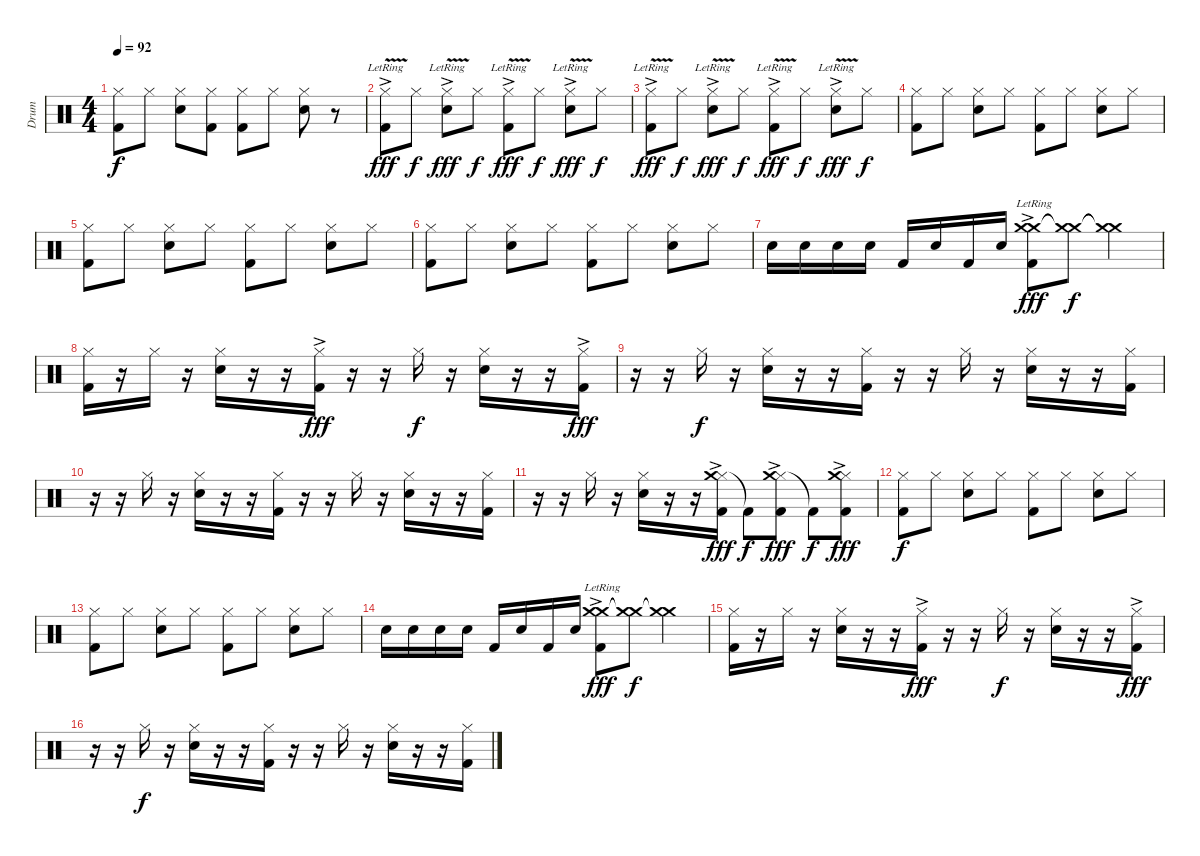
\track ("Drum" "Drum") {instrument percussion}
\staff {score}
\articulation defaults
\ts (4 4)
\tempo 92
\clef neutral
\ks c
("Hi-Hat (closed)" "Kick (hit) 2").8{dy f} "Hi-Hat (closed)".8 ("Hi-Hat (closed)" "Electric Snare (hit)").8 ("Hi-Hat (closed)" "Kick (hit) 2").8 ("Hi-Hat (closed)" "Kick (hit) 2").8 "Hi-Hat (closed)".8 ("Hi-Hat (closed)" "Electric Snare (hit)").8 r.8 |
("Hi-Hat (closed)" "Kick (hit) 2"{v ac lr}).8{dy fff} "Hi-Hat (closed)".8{dy f} ("Hi-Hat (closed)" "Electric Snare (hit)"{v ac lr}).8{dy fff} "Hi-Hat (closed)".8{dy f} ("Hi-Hat (closed)" "Kick (hit) 2"{v ac lr}).8{dy fff} "Hi-Hat (closed)".8{dy f} ("Hi-Hat (closed)" "Electric Snare (hit)"{v ac lr}).8{dy fff} "Hi-Hat (closed)".8{dy f} |
("Hi-Hat (closed)" "Kick (hit) 2"{v ac lr}).8{dy fff} "Hi-Hat (closed)".8{dy f} ("Hi-Hat (closed)" "Electric Snare (hit)"{v ac lr}).8{dy fff} "Hi-Hat (closed)".8{dy f} ("Hi-Hat (closed)" "Kick (hit) 2"{v ac lr}).8{dy fff} "Hi-Hat (closed)".8{dy f} ("Hi-Hat (closed)" "Electric Snare (hit)"{v ac lr}).8{dy fff} "Hi-Hat (closed)".8{dy f} |
("Hi-Hat (closed)" "Kick (hit) 2").8 "Hi-Hat (closed)".8 ("Hi-Hat (closed)" "Electric Snare (hit)").8 "Hi-Hat (closed)".8 ("Hi-Hat (closed)" "Kick (hit) 2").8 "Hi-Hat (closed)".8 ("Hi-Hat (closed)" "Electric Snare (hit)").8 "Hi-Hat (closed)".8 |
("Hi-Hat (closed)" "Kick (hit) 2").8 "Hi-Hat (closed)".8 ("Hi-Hat (closed)" "Electric Snare (hit)").8 "Hi-Hat (closed)".8 ("Hi-Hat (closed)" "Kick (hit) 2").8 "Hi-Hat (closed)".8 ("Hi-Hat (closed)" "Electric Snare (hit)").8 "Hi-Hat (closed)".8 |
("Hi-Hat (closed)" "Kick (hit) 2").8 "Hi-Hat (closed)".8 ("Hi-Hat (closed)" "Electric Snare (hit)").8 "Hi-Hat (closed)".8 ("Hi-Hat (closed)" "Kick (hit) 2").8 "Hi-Hat (closed)".8 ("Hi-Hat (closed)" "Electric Snare (hit)").8 "Hi-Hat (closed)".8 |
"Electric Snare (hit)".16 "Electric Snare (hit)".16 "Electric Snare (hit)".16 "Electric Snare (hit)".16 "Kick (hit) 2".16 "Electric Snare (hit)".16 "Kick (hit) 2".16 "Electric Snare (hit)".16 ("Crash medium (hit)"{ac lr} "Crash medium (hit)"{ac lr} "Kick (hit) 2").8{dy fff} ("Crash medium (hit)"{t} "Crash medium (hit)"{t}).8{dy f} ("Crash medium (hit)"{t} "Crash medium (hit)"{t}).4 |
("Hi-Hat (closed)" "Kick (hit) 2").16 r.16 "Hi-Hat (closed)".16 r.16 ("Hi-Hat (closed)" "Electric Snare (hit)").16 r.16 r.16 ("Hi-Hat (closed)" "Kick (hit) 2"{ac}).16{dy fff} r.16 r.16 "Hi-Hat (closed)".16{dy f} r.16 ("Hi-Hat (closed)" "Electric Snare (hit)").16 r.16 r.16 ("Hi-Hat (closed)" "Kick (hit) 2"{ac}).16{dy fff} |
r.16 r.16 "Hi-Hat (closed)".16{dy f} r.16 ("Hi-Hat (closed)" "Electric Snare (hit)").16 r.16 r.16 ("Hi-Hat (closed)" "Kick (hit) 2").16 r.16 r.16 "Hi-Hat (closed)".16 r.16 ("Hi-Hat (closed)" "Electric Snare (hit)").16 r.16 r.16 ("Hi-Hat (closed)" "Kick (hit) 2").16 |
r.16 r.16 "Hi-Hat (closed)".16 r.16 ("Hi-Hat (closed)" "Electric Snare (hit)").16 r.16 r.16 ("Hi-Hat (closed)" "Kick (hit) 2").16 r.16 r.16 "Hi-Hat (closed)".16 r.16 ("Hi-Hat (closed)" "Electric Snare (hit)").16 r.16 r.16 ("Hi-Hat (closed)" "Kick (hit) 2").16 |
r.16 r.16 "Hi-Hat (closed)".16 r.16 ("Hi-Hat (closed)" "Electric Snare (hit)").16 r.16 r.16 ("Hi-Hat (closed)" "Crash medium (hit)" "Kick (hit) 2"{ac}).16{dy fff} "Kick (hit) 2"{t}.8{dy f} ("Hi-Hat (closed)" "Crash medium (hit)" "Kick (hit) 2"{ac}).8{dy fff} "Kick (hit) 2"{t}.8{dy f} ("Hi-Hat (closed)" "Crash medium (hit)" "Kick (hit) 2"{ac}).8{dy fff} |
("Hi-Hat (closed)" "Kick (hit) 2").8{dy f} "Hi-Hat (closed)".8 ("Hi-Hat (closed)" "Electric Snare (hit)").8 "Hi-Hat (closed)".8 ("Hi-Hat (closed)" "Kick (hit) 2").8 "Hi-Hat (closed)".8 ("Hi-Hat (closed)" "Electric Snare (hit)").8 "Hi-Hat (closed)".8 |
("Hi-Hat (closed)" "Kick (hit) 2").8 "Hi-Hat (closed)".8 ("Hi-Hat (closed)" "Electric Snare (hit)").8 "Hi-Hat (closed)".8 ("Hi-Hat (closed)" "Kick (hit) 2").8 "Hi-Hat (closed)".8 ("Hi-Hat (closed)" "Electric Snare (hit)").8 "Hi-Hat (closed)".8 |
"Electric Snare (hit)".16 "Electric Snare (hit)".16 "Electric Snare (hit)".16 "Electric Snare (hit)".16 "Kick (hit) 2".16 "Electric Snare (hit)".16 "Kick (hit) 2".16 "Electric Snare (hit)".16 ("Crash medium (hit)"{ac lr} "Crash medium (hit)"{ac lr} "Kick (hit) 2").8{dy fff} ("Crash medium (hit)"{t} "Crash medium (hit)"{t}).8{dy f} ("Crash medium (hit)"{t} "Crash medium (hit)"{t}).4 |
("Hi-Hat (closed)" "Kick (hit) 2").16 r.16 "Hi-Hat (closed)".16 r.16 ("Hi-Hat (closed)" "Electric Snare (hit)").16 r.16 r.16 ("Hi-Hat (closed)" "Kick (hit) 2"{ac}).16{dy fff} r.16 r.16 "Hi-Hat (closed)".16{dy f} r.16 ("Hi-Hat (closed)" "Electric Snare (hit)").16 r.16 r.16 ("Hi-Hat (closed)" "Kick (hit) 2"{ac}).16{dy fff} |
r.16 r.16 "Hi-Hat (closed)".16{dy f} r.16 ("Hi-Hat (closed)" "Electric Snare (hit)").16 r.16 r.16 ("Hi-Hat (closed)" "Kick (hit) 2").16 r.16 r.16 "Hi-Hat (closed)".16 r.16 ("Hi-Hat (closed)" "Electric Snare (hit)").16 r.16 r.16 ("Hi-Hat (closed)" "Kick (hit) 2").16
